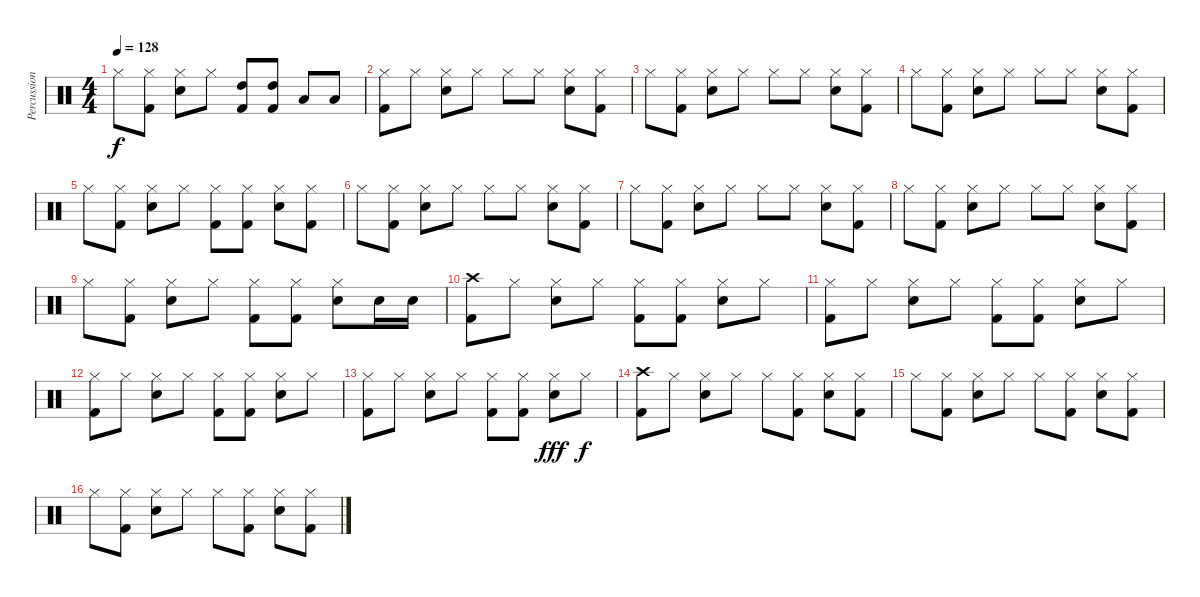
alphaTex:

\track ("Percussion" "Percussion") {instrument percussion bank 10}
\staff {score}
\articulation defaults
\ts (4 4)
\tempo 128
\clef neutral
\ks c "Hi-Hat (closed)".8{dy f}
("Hi-Hat (closed)" "Kick (hit) 2").8 ("Hi-Hat (closed)" "Snare (hit) 2").8 "Hi-Hat (closed)".8 ("High Tom (hit)" "Kick (hit) 2").8 ("High Tom (hit)" "Kick (hit) 2").8 "Low Tom (hit)".8 "Low Tom (hit)".8 |
("Hi-Hat (closed)" "Kick (hit) 2").8 "Hi-Hat (closed)".8 ("Hi-Hat (closed)" "Snare (hit) 2").8 "Hi-Hat (closed)".8 "Hi-Hat (closed)".8 "Hi-Hat (closed)".8 ("Hi-Hat (closed)" "Snare (hit) 2").8 ("Hi-Hat (closed)" "Kick (hit) 2").8 |
"Hi-Hat (closed)".8 ("Hi-Hat (closed)" "Kick (hit) 2").8 ("Hi-Hat (closed)" "Snare (hit) 2").8 "Hi-Hat (closed)".8 "Hi-Hat (closed)".8 "Hi-Hat (closed)".8 ("Hi-Hat (closed)" "Snare (hit) 2").8 ("Hi-Hat (closed)" "Kick (hit) 2").8 |
"Hi-Hat (closed)".8 ("Hi-Hat (closed)" "Kick (hit) 2").8 ("Hi-Hat (closed)" "Snare (hit) 2").8 "Hi-Hat (closed)".8 "Hi-Hat (closed)".8 "Hi-Hat (closed)".8 ("Hi-Hat (closed)" "Snare (hit) 2").8 ("Hi-Hat (closed)" "Kick (hit) 2").8 |
"Hi-Hat (closed)".8 ("Hi-Hat (closed)" "Kick (hit) 2").8 ("Hi-Hat (closed)" "Snare (hit) 2").8 "Hi-Hat (closed)".8 ("Hi-Hat (closed)" "Kick (hit) 2").8 ("Hi-Hat (closed)" "Kick (hit) 2").8 ("Hi-Hat (closed)" "Snare (hit) 2").8 ("Hi-Hat (closed)" "Kick (hit) 2").8 |
"Hi-Hat (closed)".8 ("Hi-Hat (closed)" "Kick (hit) 2").8 ("Hi-Hat (closed)" "Snare (hit) 2").8 "Hi-Hat (closed)".8 "Hi-Hat (closed)".8 "Hi-Hat (closed)".8 ("Hi-Hat (closed)" "Snare (hit) 2").8 ("Hi-Hat (closed)" "Kick (hit) 2").8 |
"Hi-Hat (closed)".8 ("Hi-Hat (closed)" "Kick (hit) 2").8 ("Hi-Hat (closed)" "Snare (hit) 2").8 "Hi-Hat (closed)".8 "Hi-Hat (closed)".8 "Hi-Hat (closed)".8 ("Hi-Hat (closed)" "Snare (hit) 2").8 ("Hi-Hat (closed)" "Kick (hit) 2").8 |
"Hi-Hat (closed)".8 ("Hi-Hat (closed)" "Kick (hit) 2").8 ("Hi-Hat (closed)" "Snare (hit) 2").8 "Hi-Hat (closed)".8 "Hi-Hat (closed)".8 "Hi-Hat (closed)".8 ("Hi-Hat (closed)" "Snare (hit) 2").8 ("Hi-Hat (closed)" "Kick (hit) 2").8 |
"Hi-Hat (closed)".8 ("Hi-Hat (closed)" "Kick (hit) 2").8 ("Hi-Hat (closed)" "Snare (hit) 2").8 "Hi-Hat (closed)".8 ("Hi-Hat (closed)" "Kick (hit) 2").8 ("Hi-Hat (closed)" "Kick (hit) 2").8 ("Hi-Hat (closed)" "Snare (hit) 2").8 "Snare (hit) 2".16 "Snare (hit) 2".16 |
("Crash high (hit)" "Kick (hit) 2").8 "Hi-Hat (closed)".8 ("Hi-Hat (closed)" "Snare (hit) 2").8 "Hi-Hat (closed)".8 ("Hi-Hat (closed)" "Kick (hit) 2").8 ("Hi-Hat (closed)" "Kick (hit) 2").8 ("Hi-Hat (closed)" "Snare (hit) 2").8 "Hi-Hat (closed)".8 |
("Hi-Hat (closed)" "Kick (hit) 2").8 "Hi-Hat (closed)".8 ("Hi-Hat (closed)" "Snare (hit) 2").8 "Hi-Hat (closed)".8 ("Hi-Hat (closed)" "Kick (hit) 2").8 ("Hi-Hat (closed)" "Kick (hit) 2").8 ("Hi-Hat (closed)" "Snare (hit) 2").8 "Hi-Hat (closed)".8 |
("Hi-Hat (closed)" "Kick (hit) 2").8 "Hi-Hat (closed)".8 ("Hi-Hat (closed)" "Snare (hit) 2").8 "Hi-Hat (closed)".8 ("Hi-Hat (closed)" "Kick (hit) 2").8 ("Hi-Hat (closed)" "Kick (hit) 2").8 ("Hi-Hat (closed)" "Snare (hit) 2").8 "Hi-Hat (closed)".8 |
("Hi-Hat (closed)" "Kick (hit) 2").8 "Hi-Hat (closed)".8 ("Hi-Hat (closed)" "Snare (hit) 2").8 "Hi-Hat (closed)".8 ("Hi-Hat (closed)" "Kick (hit) 2").8 ("Hi-Hat (closed)" "Kick (hit) 2").8 ("Hi-Hat (closed)" "Snare (hit) 2").8{dy fff} "Hi-Hat (closed)".8{dy f} |
("Crash high (hit)" "Kick (hit) 2").8 "Hi-Hat (closed)".8 ("Hi-Hat (closed)" "Snare (hit) 2").8 "Hi-Hat (closed)".8 "Hi-Hat (closed)".8 ("Hi-Hat (closed)" "Kick (hit) 2").8 ("Hi-Hat (closed)" "Snare (hit) 2").8 ("Hi-Hat (closed)" "Kick (hit) 2").8 |
"Hi-Hat (closed)".8 ("Hi-Hat (closed)" "Kick (hit) 2").8 ("Hi-Hat (closed)" "Snare (hit) 2").8 "Hi-Hat (closed)".8 "Hi-Hat (closed)".8 ("Hi-Hat (closed)" "Kick (hit) 2").8 ("Hi-Hat (closed)" "Snare (hit) 2").8 ("Hi-Hat (closed)" "Kick (hit) 2").8 |
"Hi-Hat (closed)".8 ("Hi-Hat (closed)" "Kick (hit) 2").8 ("Hi-Hat (closed)" "Snare (hit) 2").8 "Hi-Hat (closed)".8 "Hi-Hat (closed)".8 ("Hi-Hat (closed)" "Kick (hit) 2").8 ("Hi-Hat (closed)" "Snare (hit) 2").8 ("Hi-Hat (closed)" "Kick (hit) 2").8
